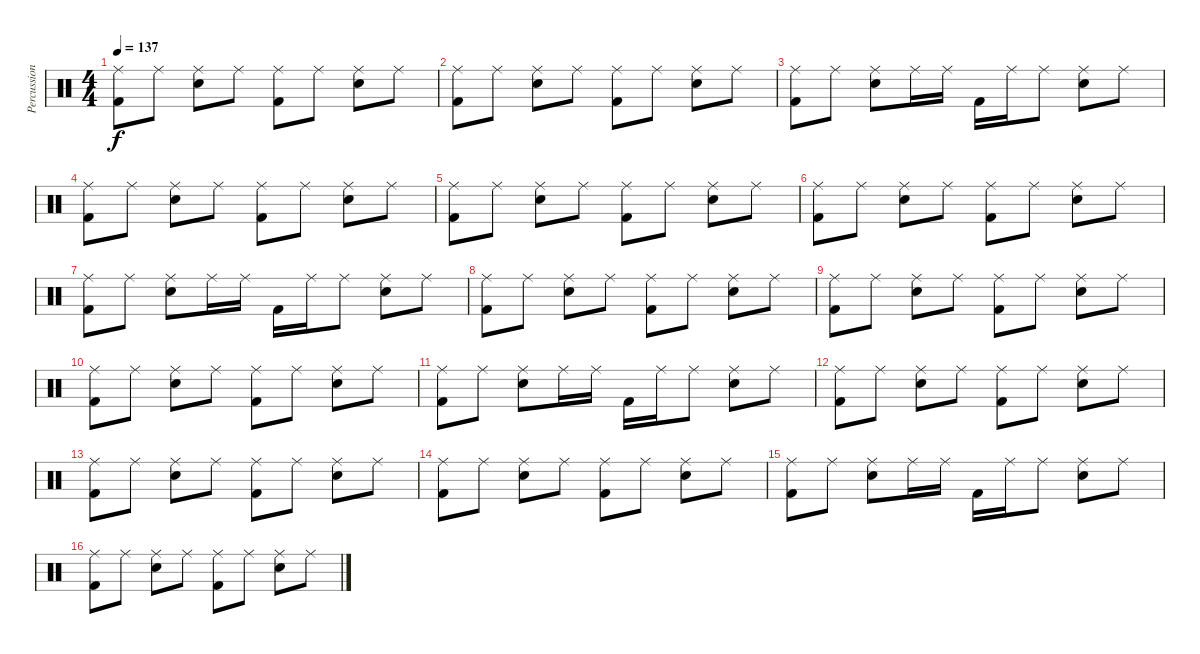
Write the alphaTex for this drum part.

\track ("Percussion" "Percussion") {instrument percussion}
\staff {score}
\articulation defaults
\ts (4 4)
\tempo 137
\clef neutral
\ks c
("Ride (middle)" "Kick (hit) 2").8{dy f} "Ride (middle)".8 ("Ride (middle)" "Snare (hit) 2").8 "Ride (middle)".8 ("Ride (middle)" "Kick (hit) 2").8 "Ride (middle)".8 ("Ride (middle)" "Snare (hit) 2").8 "Ride (middle)".8 |
("Ride (middle)" "Kick (hit) 2").8 "Ride (middle)".8 ("Ride (middle)" "Snare (hit) 2").8 "Ride (middle)".8 ("Ride (middle)" "Kick (hit) 2").8 "Ride (middle)".8 ("Ride (middle)" "Snare (hit) 2").8 "Ride (middle)".8 |
("Ride (middle)" "Kick (hit) 2").8 "Ride (middle)".8 ("Ride (middle)" "Snare (hit) 2").8 "Ride (middle)".16 "Ride (middle)".16 "Kick (hit) 2".16 "Ride (middle)".16 "Ride (middle)".8 ("Ride (middle)" "Snare (hit) 2").8 "Ride (middle)".8 |
("Ride (middle)" "Kick (hit) 2").8 "Ride (middle)".8 ("Ride (middle)" "Snare (hit) 2").8 "Ride (middle)".8 ("Ride (middle)" "Kick (hit) 2").8 "Ride (middle)".8 ("Ride (middle)" "Snare (hit) 2").8 "Ride (middle)".8 |
("Ride (middle)" "Kick (hit) 2").8 "Ride (middle)".8 ("Ride (middle)" "Snare (hit) 2").8 "Ride (middle)".8 ("Ride (middle)" "Kick (hit) 2").8 "Ride (middle)".8 ("Ride (middle)" "Snare (hit) 2").8 "Ride (middle)".8 |
("Ride (middle)" "Kick (hit) 2").8 "Ride (middle)".8 ("Ride (middle)" "Snare (hit) 2").8 "Ride (middle)".8 ("Ride (middle)" "Kick (hit) 2").8 "Ride (middle)".8 ("Ride (middle)" "Snare (hit) 2").8 "Ride (middle)".8 |
("Ride (middle)" "Kick (hit) 2").8 "Ride (middle)".8 ("Ride (middle)" "Snare (hit) 2").8 "Ride (middle)".16 "Ride (middle)".16 "Kick (hit) 2".16 "Ride (middle)".16 "Ride (middle)".8 ("Ride (middle)" "Snare (hit) 2").8 "Ride (middle)".8 |
("Ride (middle)" "Kick (hit) 2").8 "Ride (middle)".8 ("Ride (middle)" "Snare (hit) 2").8 "Ride (middle)".8 ("Ride (middle)" "Kick (hit) 2").8 "Ride (middle)".8 ("Ride (middle)" "Snare (hit) 2").8 "Ride (middle)".8 |
("Ride (middle)" "Kick (hit) 2").8 "Ride (middle)".8 ("Ride (middle)" "Snare (hit) 2").8 "Ride (middle)".8 ("Ride (middle)" "Kick (hit) 2").8 "Ride (middle)".8 ("Ride (middle)" "Snare (hit) 2").8 "Ride (middle)".8 |
("Ride (middle)" "Kick (hit) 2").8 "Ride (middle)".8 ("Ride (middle)" "Snare (hit) 2").8 "Ride (middle)".8 ("Ride (middle)" "Kick (hit) 2").8 "Ride (middle)".8 ("Ride (middle)" "Snare (hit) 2").8 "Ride (middle)".8 |
("Ride (middle)" "Kick (hit) 2").8 "Ride (middle)".8 ("Ride (middle)" "Snare (hit) 2").8 "Ride (middle)".16 "Ride (middle)".16 "Kick (hit) 2".16 "Ride (middle)".16 "Ride (middle)".8 ("Ride (middle)" "Snare (hit) 2").8 "Ride (middle)".8 |
("Ride (middle)" "Kick (hit) 2").8 "Ride (middle)".8 ("Ride (middle)" "Snare (hit) 2").8 "Ride (middle)".8 ("Ride (middle)" "Kick (hit) 2").8 "Ride (middle)".8 ("Ride (middle)" "Snare (hit) 2").8 "Ride (middle)".8 |
("Ride (middle)" "Kick (hit) 2").8 "Ride (middle)".8 ("Ride (middle)" "Snare (hit) 2").8 "Ride (middle)".8 ("Ride (middle)" "Kick (hit) 2").8 "Ride (middle)".8 ("Ride (middle)" "Snare (hit) 2").8 "Ride (middle)".8 |
("Ride (middle)" "Kick (hit) 2").8 "Ride (middle)".8 ("Ride (middle)" "Snare (hit) 2").8 "Ride (middle)".8 ("Ride (middle)" "Kick (hit) 2").8 "Ride (middle)".8 ("Ride (middle)" "Snare (hit) 2").8 "Ride (middle)".8 |
("Ride (middle)" "Kick (hit) 2").8 "Ride (middle)".8 ("Ride (middle)" "Snare (hit) 2").8 "Ride (middle)".16 "Ride (middle)".16 "Kick (hit) 2".16 "Ride (middle)".16 "Ride (middle)".8 ("Ride (middle)" "Snare (hit) 2").8 "Ride (middle)".8 |
("Ride (middle)" "Kick (hit) 2").8 "Ride (middle)".8 ("Ride (middle)" "Snare (hit) 2").8 "Ride (middle)".8 ("Ride (middle)" "Kick (hit) 2").8 "Ride (middle)".8 ("Ride (middle)" "Snare (hit) 2").8 "Ride (middle)".8
